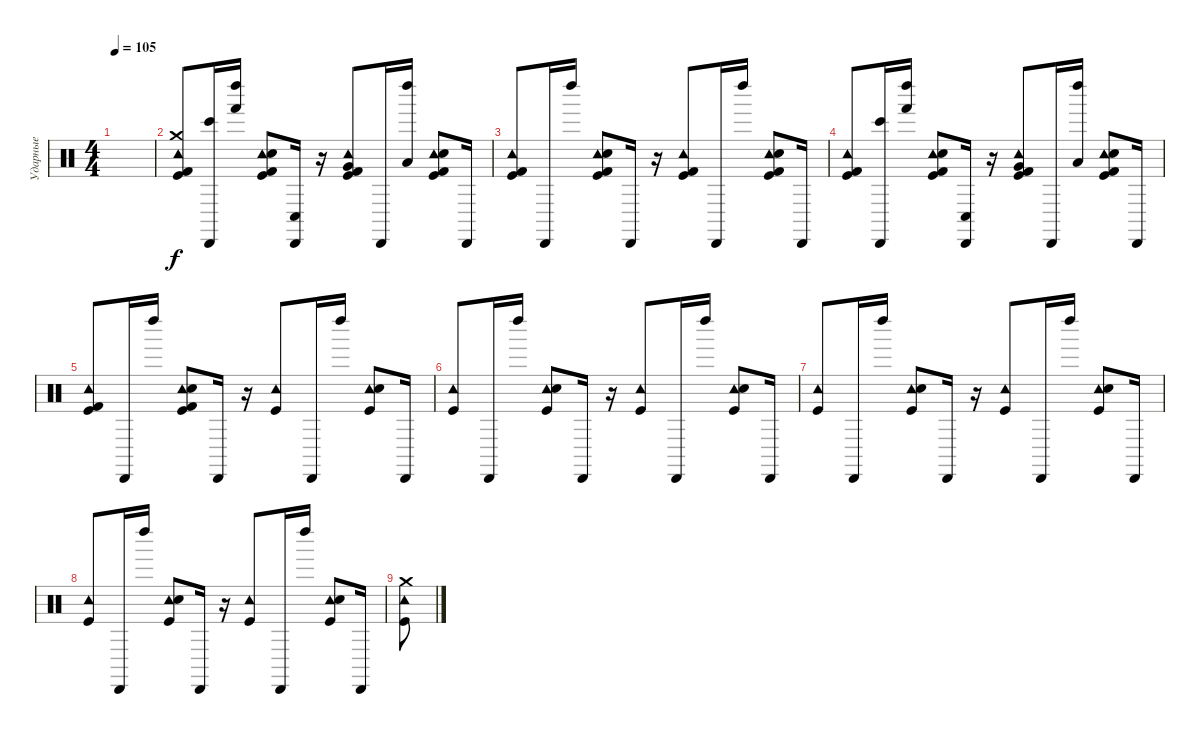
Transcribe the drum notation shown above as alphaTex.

\track ("Ударные" "Ударные") {instrument percussion}
\staff {score}
\articulation defaults
\ts (4 4)
\tempo 105
\clef neutral
\ks c
|
("Kick (hit)" "Tambourine (hit)" "Crash medium (hit)" "Kick (hit) 2").8 ("Cabasa (hit)" "Bongo High (hit)").16 ("Left Maraca (hit)" "Hand (hit)").16 ("Kick (hit)" "Tambourine (hit)" "Snare (hit) 2" "Kick (hit) 2").8 ("Cabasa (hit)" "Conga low (hit)").16 r.16 ("Kick (hit)" "Tambourine (hit)" "Very Low Tom (hit)" "Kick (hit) 2").8 "Cabasa (hit)".16 ("Left Maraca (hit)" "Low Tom (hit)").16 ("Kick (hit)" "Tambourine (hit)" "Snare (hit) 2" "Kick (hit) 2").8 "Cabasa (hit)".16 |
("Kick (hit)" "Tambourine (hit)" "Kick (hit) 2").8 "Cabasa (hit)".16 "Left Maraca (hit)".16 ("Kick (hit)" "Tambourine (hit)" "Snare (hit) 2" "Kick (hit) 2").8 "Cabasa (hit)".16 r.16 ("Kick (hit)" "Tambourine (hit)" "Kick (hit) 2").8 "Cabasa (hit)".16 "Left Maraca (hit)".16 ("Kick (hit)" "Tambourine (hit)" "Snare (hit) 2" "Kick (hit) 2").8 "Cabasa (hit)".16 |
("Kick (hit)" "Tambourine (hit)" "Kick (hit) 2").8 ("Cabasa (hit)" "Bongo High (hit)").16 ("Left Maraca (hit)" "Hand (hit)").16 ("Kick (hit)" "Tambourine (hit)" "Snare (hit) 2" "Kick (hit) 2").8 ("Cabasa (hit)" "Conga low (hit)").16 r.16 ("Kick (hit)" "Tambourine (hit)" "Very Low Tom (hit)" "Kick (hit) 2").8 "Cabasa (hit)".16 ("Left Maraca (hit)" "Low Tom (hit)").16 ("Kick (hit)" "Tambourine (hit)" "Snare (hit) 2" "Kick (hit) 2").8 "Cabasa (hit)".16 |
("Kick (hit)" "Tambourine (hit)" "Kick (hit) 2").8 "Cabasa (hit)".16 "Left Maraca (hit)".16 ("Kick (hit)" "Tambourine (hit)" "Snare (hit) 2" "Kick (hit) 2").8 "Cabasa (hit)".16 r.16 ("Kick (hit)" "Tambourine (hit)").8 "Cabasa (hit)".16 "Left Maraca (hit)".16 ("Kick (hit)" "Tambourine (hit)" "Snare (hit) 2").8 "Cabasa (hit)".16 |
("Kick (hit)" "Tambourine (hit)").8 "Cabasa (hit)".16 "Left Maraca (hit)".16 ("Kick (hit)" "Tambourine (hit)" "Snare (hit) 2").8 "Cabasa (hit)".16 r.16 ("Kick (hit)" "Tambourine (hit)").8 "Cabasa (hit)".16 "Left Maraca (hit)".16 ("Kick (hit)" "Tambourine (hit)" "Snare (hit) 2").8 "Cabasa (hit)".16 |
("Kick (hit)" "Tambourine (hit)").8 "Cabasa (hit)".16 "Left Maraca (hit)".16 ("Kick (hit)" "Tambourine (hit)" "Snare (hit) 2").8 "Cabasa (hit)".16 r.16 ("Kick (hit)" "Tambourine (hit)").8 "Cabasa (hit)".16 "Left Maraca (hit)".16 ("Kick (hit)" "Tambourine (hit)" "Snare (hit) 2").8 "Cabasa (hit)".16 |
("Kick (hit)" "Tambourine (hit)").8 "Cabasa (hit)".16 "Left Maraca (hit)".16 ("Kick (hit)" "Tambourine (hit)" "Snare (hit) 2").8 "Cabasa (hit)".16 r.16 ("Kick (hit)" "Tambourine (hit)").8 "Cabasa (hit)".16 "Left Maraca (hit)".16 ("Kick (hit)" "Tambourine (hit)" "Snare (hit) 2").8 "Cabasa (hit)".16 |
("Kick (hit)" "Tambourine (hit)" "Crash medium (hit)").8
